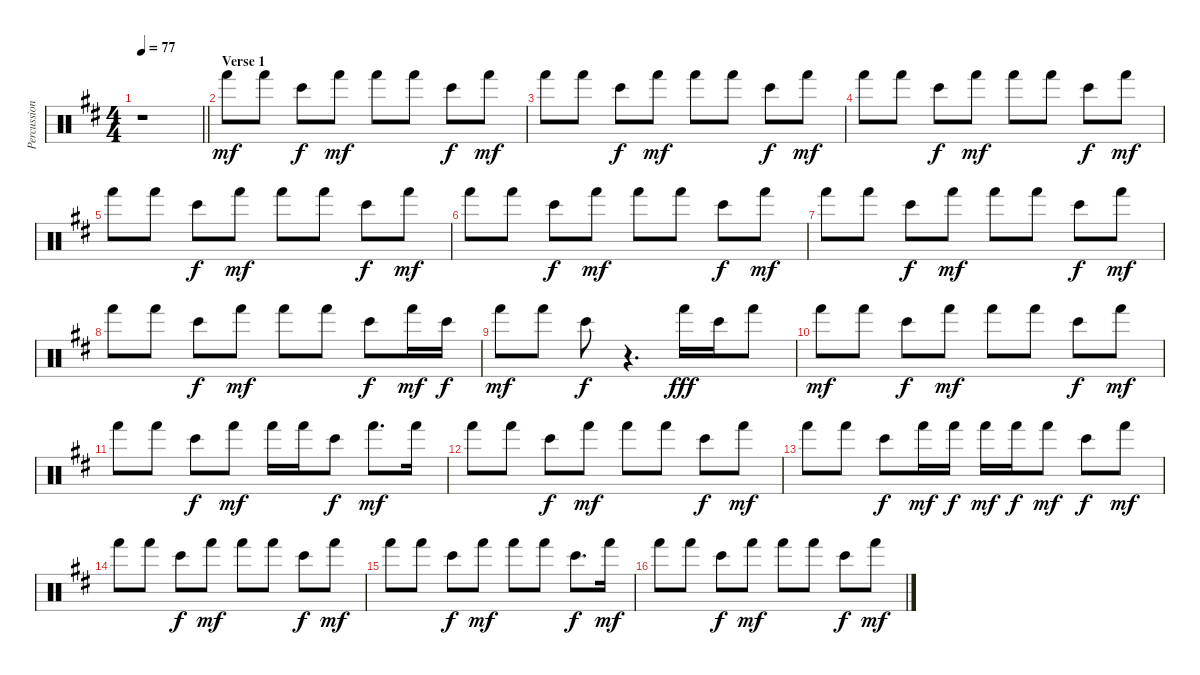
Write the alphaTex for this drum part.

\track ("Percussion" "Percussion") {instrument percussion}
\staff {score}
\articulation defaults
\ts (4 4)
\tempo 77
\clef neutral
\barLineRight lightlight
\ks d
r.1{dy mf} |
\section ("" "Verse 1")
"Hand (hit)".8 "Hand (hit)".8 "Bongo High (hit)".8{dy f} "Hand (hit)".8{dy mf} "Hand (hit)".8 "Hand (hit)".8 "Bongo High (hit)".8{dy f} "Hand (hit)".8{dy mf} |
"Hand (hit)".8 "Hand (hit)".8 "Bongo High (hit)".8{dy f} "Hand (hit)".8{dy mf} "Hand (hit)".8 "Hand (hit)".8 "Bongo High (hit)".8{dy f} "Hand (hit)".8{dy mf} |
"Hand (hit)".8 "Hand (hit)".8 "Bongo High (hit)".8{dy f} "Hand (hit)".8{dy mf} "Hand (hit)".8 "Hand (hit)".8 "Bongo High (hit)".8{dy f} "Hand (hit)".8{dy mf} |
"Hand (hit)".8 "Hand (hit)".8 "Bongo High (hit)".8{dy f} "Hand (hit)".8{dy mf} "Hand (hit)".8 "Hand (hit)".8 "Bongo High (hit)".8{dy f} "Hand (hit)".8{dy mf} |
"Hand (hit)".8 "Hand (hit)".8 "Bongo High (hit)".8{dy f} "Hand (hit)".8{dy mf} "Hand (hit)".8 "Hand (hit)".8 "Bongo High (hit)".8{dy f} "Hand (hit)".8{dy mf} |
"Hand (hit)".8 "Hand (hit)".8 "Bongo High (hit)".8{dy f} "Hand (hit)".8{dy mf} "Hand (hit)".8 "Hand (hit)".8 "Bongo High (hit)".8{dy f} "Hand (hit)".8{dy mf} |
"Hand (hit)".8 "Hand (hit)".8 "Bongo High (hit)".8{dy f} "Hand (hit)".8{dy mf} "Hand (hit)".8 "Hand (hit)".8 "Bongo High (hit)".8{dy f} "Hand (hit)".16{dy mf} "Bongo High (hit)".16{dy f} |
"Hand (hit)".8{dy mf} "Hand (hit)".8 "Bongo High (hit)".8{dy f} r.4{d} "Hand (hit)".16{dy fff} "Bongo High (hit)".16 "Hand (hit)".8 |
"Hand (hit)".8{dy mf} "Hand (hit)".8 "Bongo High (hit)".8{dy f} "Hand (hit)".8{dy mf} "Hand (hit)".8 "Hand (hit)".8 "Bongo High (hit)".8{dy f} "Hand (hit)".8{dy mf} |
"Hand (hit)".8 "Hand (hit)".8 "Bongo High (hit)".8{dy f} "Hand (hit)".8{dy mf} "Hand (hit)".16 "Hand (hit)".16 "Bongo High (hit)".8{dy f} "Hand (hit)".8{d dy mf} "Hand (hit)".16 |
"Hand (hit)".8 "Hand (hit)".8 "Bongo High (hit)".8{dy f} "Hand (hit)".8{dy mf} "Hand (hit)".8 "Hand (hit)".8 "Bongo High (hit)".8{dy f} "Hand (hit)".8{dy mf} |
"Hand (hit)".8 "Hand (hit)".8 "Bongo High (hit)".8{dy f} "Hand (hit)".16{dy mf} "Hand (hit)".16{dy f} "Hand (hit)".16{dy mf} "Hand (hit)".16{dy f} "Hand (hit)".8{dy mf} "Bongo High (hit)".8{dy f} "Hand (hit)".8{dy mf} |
"Hand (hit)".8 "Hand (hit)".8 "Bongo High (hit)".8{dy f} "Hand (hit)".8{dy mf} "Hand (hit)".8 "Hand (hit)".8 "Bongo High (hit)".8{dy f} "Hand (hit)".8{dy mf} |
"Hand (hit)".8 "Hand (hit)".8 "Bongo High (hit)".8{dy f} "Hand (hit)".8{dy mf} "Hand (hit)".8 "Hand (hit)".8 "Bongo High (hit)".8{d dy f} "Hand (hit)".16{dy mf} |
"Hand (hit)".8 "Hand (hit)".8 "Bongo High (hit)".8{dy f} "Hand (hit)".8{dy mf} "Hand (hit)".8 "Hand (hit)".8 "Bongo High (hit)".8{dy f} "Hand (hit)".8{dy mf}
